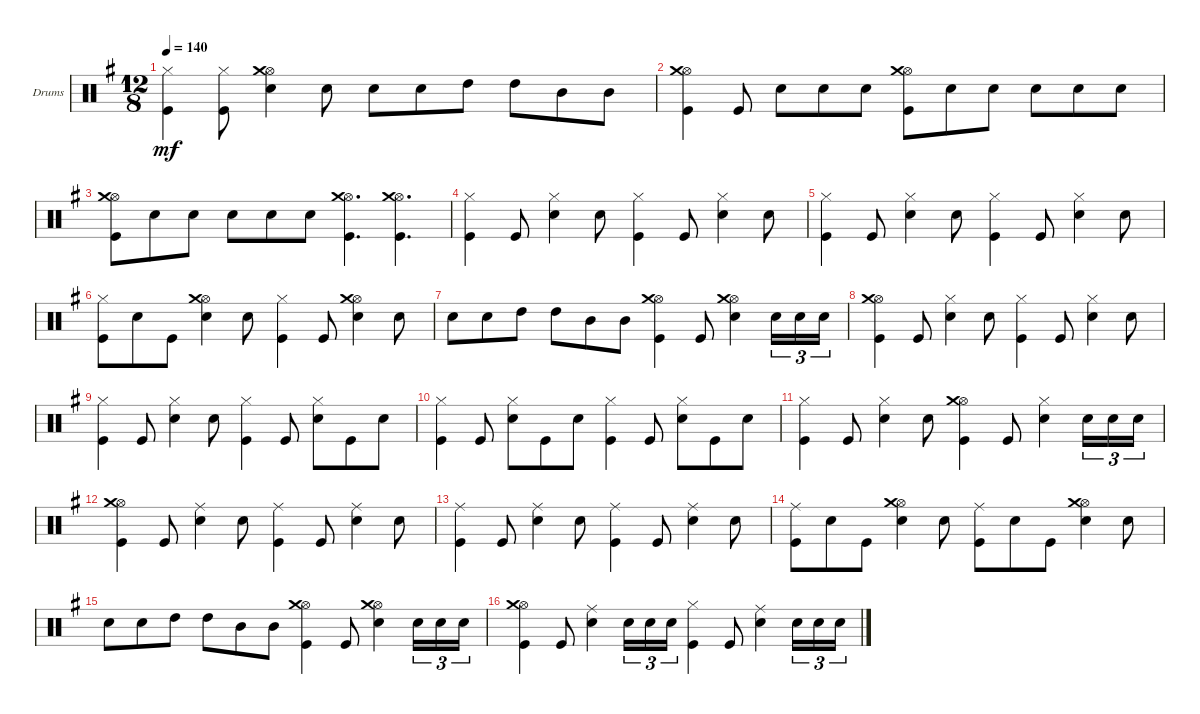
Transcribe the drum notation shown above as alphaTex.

\defaultSystemsLayout 4
\bracketExtendMode groupsimilarinstruments
\firstSystemTrackNameOrientation horizontal
\otherSystemsTrackNameOrientation horizontal
\track ("Drumkit" "Drums") {instrument percussion}
\staff {score}
\articulation defaults
\ts (12 8)
\tempo 140
\clef neutral
\ks g
("Kick (hit)" "Hi-Hat (closed)").4{dy mf} ("Hi-Hat (closed)" "Kick (hit)").8 ("Snare (hit) 2" "Hi-Hat (open)" "Crash medium (hit)").4 "Snare (hit) 2".8 "Snare (hit) 2".8 "Snare (hit) 2".8 "High Tom (hit)".8 "High Tom (hit)".8 "Mid Tom (hit)".8 "Mid Tom (hit)".8 |
("Hi-Hat (open)" "Crash medium (hit)" "Kick (hit)").4 "Kick (hit)".8 "Snare (hit) 2".8 "Snare (hit) 2".8 "Snare (hit) 2".8 ("Hi-Hat (open)" "Crash medium (hit)" "Kick (hit)").8 "Snare (hit) 2".8 "Snare (hit) 2".8 "Snare (hit) 2".8 "Snare (hit) 2".8 "Snare (hit) 2".8 |
("Hi-Hat (open)" "Crash medium (hit)" "Kick (hit)").8 "Snare (hit) 2".8 "Snare (hit) 2".8 "Snare (hit) 2".8 "Snare (hit) 2".8 "Snare (hit) 2".8 ("Hi-Hat (open)" "Crash medium (hit)" "Kick (hit)").4{d} ("Hi-Hat (open)" "Crash medium (hit)" "Kick (hit)").4{d} |
("Kick (hit)" "Hi-Hat (closed)").4 "Kick (hit)".8 ("Snare (hit) 2" "Hi-Hat (closed)").4 "Snare (hit) 2".8 ("Hi-Hat (closed)" "Kick (hit)").4 "Kick (hit)".8 ("Snare (hit) 2" "Hi-Hat (closed)").4 "Snare (hit) 2".8 |
("Hi-Hat (closed)" "Kick (hit)").4 "Kick (hit)".8 ("Hi-Hat (closed)" "Snare (hit) 2").4 "Snare (hit) 2".8 ("Hi-Hat (closed)" "Kick (hit)").4 "Kick (hit)".8 ("Hi-Hat (closed)" "Snare (hit) 2").4 "Snare (hit) 2".8 |
("Hi-Hat (closed)" "Kick (hit)").8 "Snare (hit) 2".8 "Kick (hit)".8 ("Snare (hit) 2" "Hi-Hat (open)" "Crash medium (hit)").4 "Snare (hit) 2".8 ("Hi-Hat (closed)" "Kick (hit)").4 "Kick (hit)".8 ("Snare (hit) 2" "Hi-Hat (open)" "Crash medium (hit)").4 "Snare (hit) 2".8 |
"Snare (hit) 2".8 "Snare (hit) 2".8 "High Tom (hit)".8 "High Tom (hit)".8 "Mid Tom (hit)".8 "Mid Tom (hit)".8 ("Kick (hit)" "Hi-Hat (open)" "Crash medium (hit)").4 "Kick (hit)".8 ("Snare (hit) 2" "Hi-Hat (open)" "Crash medium (hit)").4 "Snare (hit) 2".16{tu (3 2)} "Snare (hit) 2".16{tu (3 2)} "Snare (hit) 2".16{tu (3 2)} |
("Kick (hit)" "Hi-Hat (open)" "Crash medium (hit)").4 "Kick (hit)".8 ("Snare (hit) 2" "Hi-Hat (closed)").4 "Snare (hit) 2".8 ("Hi-Hat (closed)" "Kick (hit)").4 "Kick (hit)".8 ("Snare (hit) 2" "Hi-Hat (closed)").4 "Snare (hit) 2".8 |
("Hi-Hat (closed)" "Kick (hit)").4 "Kick (hit)".8 ("Hi-Hat (closed)" "Snare (hit) 2").4 "Snare (hit) 2".8 ("Hi-Hat (closed)" "Kick (hit)").4 "Kick (hit)".8 ("Hi-Hat (closed)" "Snare (hit) 2").8 "Kick (hit)".8 "Snare (hit) 2".8 |
("Hi-Hat (closed)" "Kick (hit)").4 "Kick (hit)".8 ("Snare (hit) 2" "Hi-Hat (closed)").8 "Kick (hit)".8 "Snare (hit) 2".8 ("Hi-Hat (closed)" "Kick (hit)").4 "Kick (hit)".8 ("Snare (hit) 2" "Hi-Hat (closed)").8 "Kick (hit)".8 "Snare (hit) 2".8 |
("Hi-Hat (closed)" "Kick (hit)").4 "Kick (hit)".8 ("Snare (hit) 2" "Hi-Hat (closed)").4 "Snare (hit) 2".8 ("Kick (hit)" "Hi-Hat (open)" "Crash medium (hit)").4 "Kick (hit)".8 ("Snare (hit) 2" "Hi-Hat (closed)").4 "Snare (hit) 2".16{tu (3 2)} "Snare (hit) 2".16{tu (3 2)} "Snare (hit) 2".16{tu (3 2)} |
("Hi-Hat (open)" "Crash medium (hit)" "Kick (hit)").4 "Kick (hit)".8 ("Snare (hit) 2" "Ride (middle)").4 "Snare (hit) 2".8 ("Ride (middle)" "Kick (hit)").4 "Kick (hit)".8 ("Snare (hit) 2" "Ride (middle)").4 "Snare (hit) 2".8 |
("Ride (middle)" "Kick (hit)").4 "Kick (hit)".8 ("Ride (middle)" "Snare (hit) 2").4 "Snare (hit) 2".8 ("Kick (hit)" "Ride (middle)").4 "Kick (hit)".8 ("Ride (middle)" "Snare (hit) 2").4 "Snare (hit) 2".8 |
("Ride (middle)" "Kick (hit)").8 "Snare (hit) 2".8 "Kick (hit)".8 ("Snare (hit) 2" "Hi-Hat (open)" "Crash medium (hit)").4 "Snare (hit) 2".8 ("Ride (middle)" "Kick (hit)").8 "Snare (hit) 2".8 "Kick (hit)".8 ("Snare (hit) 2" "Hi-Hat (open)" "Crash medium (hit)").4 "Snare (hit) 2".8 |
"Snare (hit) 2".8 "Snare (hit) 2".8 "High Tom (hit)".8 "High Tom (hit)".8 "Mid Tom (hit)".8 "Mid Tom (hit)".8 ("Hi-Hat (open)" "Kick (hit)" "Crash medium (hit)").4 "Kick (hit)".8 ("Snare (hit) 2" "Hi-Hat (open)" "Crash medium (hit)").4 "Snare (hit) 2".16{tu (3 2)} "Snare (hit) 2".16{tu (3 2)} "Snare (hit) 2".16{tu (3 2)} |
("Hi-Hat (open)" "Crash medium (hit)" "Kick (hit)").4 "Kick (hit)".8 ("Snare (hit) 2" "Ride (middle)").4 "Snare (hit) 2".16{tu (3 2)} "Snare (hit) 2".16{tu (3 2)} "Snare (hit) 2".16{tu (3 2)} ("Hi-Hat (closed)" "Kick (hit)").4 "Kick (hit)".8 ("Snare (hit) 2" "Ride (middle)").4 "Snare (hit) 2".16{tu (3 2)} "Snare (hit) 2".16{tu (3 2)} "Snare (hit) 2".16{tu (3 2)}
